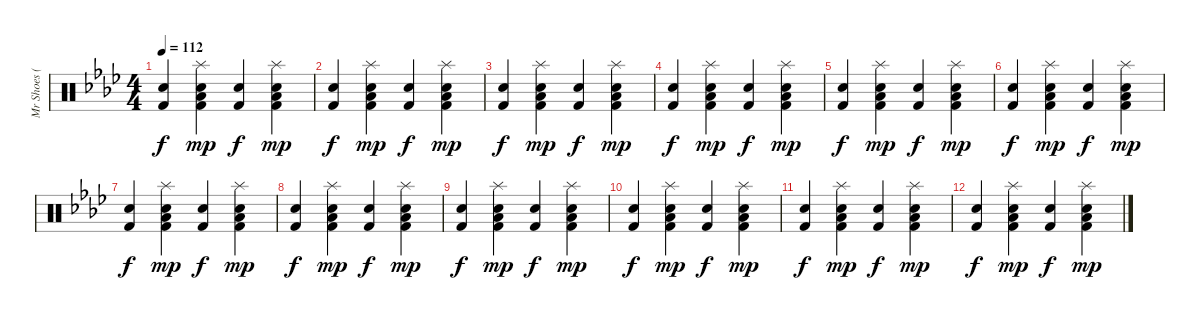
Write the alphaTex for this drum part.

\track ("Mr Shoes (batterie)" "Mr Shoes (") {instrument percussion}
\staff {score}
\articulation defaults
\ts (4 4)
\tempo 112
\clef neutral
\ks ab
("Snare (hit) 2" "Kick (hit) 2").4{dy f volume 8} ("Snare (hit) 2" "Kick (hit) 2" "Splash (hit)" "Low Tom (hit)").4{dy mp} ("Snare (hit) 2" "Kick (hit) 2").4{dy f} ("Snare (hit) 2" "Kick (hit) 2" "Splash (hit)" "Low Tom (hit)").4{dy mp} |
("Snare (hit) 2" "Kick (hit) 2").4{dy f} ("Snare (hit) 2" "Kick (hit) 2" "Splash (hit)" "Low Tom (hit)").4{dy mp} ("Snare (hit) 2" "Kick (hit) 2").4{dy f} ("Snare (hit) 2" "Kick (hit) 2" "Splash (hit)" "Low Tom (hit)").4{dy mp} |
("Snare (hit) 2" "Kick (hit) 2").4{dy f volume 7} ("Snare (hit) 2" "Kick (hit) 2" "Splash (hit)" "Low Tom (hit)").4{dy mp} ("Snare (hit) 2" "Kick (hit) 2").4{dy f} ("Snare (hit) 2" "Kick (hit) 2" "Splash (hit)" "Low Tom (hit)").4{dy mp} |
("Snare (hit) 2" "Kick (hit) 2").4{dy f} ("Snare (hit) 2" "Kick (hit) 2" "Splash (hit)" "Low Tom (hit)").4{dy mp} ("Snare (hit) 2" "Kick (hit) 2").4{dy f} ("Snare (hit) 2" "Kick (hit) 2" "Splash (hit)" "Low Tom (hit)").4{dy mp} |
("Snare (hit) 2" "Kick (hit) 2").4{dy f volume 6} ("Snare (hit) 2" "Kick (hit) 2" "Splash (hit)" "Low Tom (hit)").4{dy mp} ("Snare (hit) 2" "Kick (hit) 2").4{dy f} ("Snare (hit) 2" "Kick (hit) 2" "Splash (hit)" "Low Tom (hit)").4{dy mp} |
("Snare (hit) 2" "Kick (hit) 2").4{dy f} ("Snare (hit) 2" "Kick (hit) 2" "Splash (hit)" "Low Tom (hit)").4{dy mp} ("Snare (hit) 2" "Kick (hit) 2").4{dy f} ("Snare (hit) 2" "Kick (hit) 2" "Splash (hit)" "Low Tom (hit)").4{dy mp} |
("Snare (hit) 2" "Kick (hit) 2").4{dy f volume 5} ("Snare (hit) 2" "Kick (hit) 2" "Splash (hit)" "Low Tom (hit)").4{dy mp} ("Snare (hit) 2" "Kick (hit) 2").4{dy f} ("Snare (hit) 2" "Kick (hit) 2" "Splash (hit)" "Low Tom (hit)").4{dy mp} |
("Snare (hit) 2" "Kick (hit) 2").4{dy f} ("Snare (hit) 2" "Kick (hit) 2" "Splash (hit)" "Low Tom (hit)").4{dy mp} ("Snare (hit) 2" "Kick (hit) 2").4{dy f} ("Snare (hit) 2" "Kick (hit) 2" "Splash (hit)" "Low Tom (hit)").4{dy mp} |
("Snare (hit) 2" "Kick (hit) 2").4{dy f volume 4} ("Snare (hit) 2" "Kick (hit) 2" "Splash (hit)" "Low Tom (hit)").4{dy mp} ("Snare (hit) 2" "Kick (hit) 2").4{dy f} ("Snare (hit) 2" "Kick (hit) 2" "Splash (hit)" "Low Tom (hit)").4{dy mp} |
("Snare (hit) 2" "Kick (hit) 2").4{dy f} ("Snare (hit) 2" "Kick (hit) 2" "Splash (hit)" "Low Tom (hit)").4{dy mp} ("Snare (hit) 2" "Kick (hit) 2").4{dy f} ("Snare (hit) 2" "Kick (hit) 2" "Splash (hit)" "Low Tom (hit)").4{dy mp} |
("Snare (hit) 2" "Kick (hit) 2").4{dy f volume 2} ("Snare (hit) 2" "Kick (hit) 2" "Splash (hit)" "Low Tom (hit)").4{dy mp} ("Snare (hit) 2" "Kick (hit) 2").4{dy f} ("Snare (hit) 2" "Kick (hit) 2" "Splash (hit)" "Low Tom (hit)").4{dy mp} |
("Snare (hit) 2" "Kick (hit) 2").4{dy f} ("Snare (hit) 2" "Kick (hit) 2" "Splash (hit)" "Low Tom (hit)").4{dy mp} ("Snare (hit) 2" "Kick (hit) 2").4{dy f} ("Snare (hit) 2" "Kick (hit) 2" "Splash (hit)" "Low Tom (hit)").4{dy mp}
